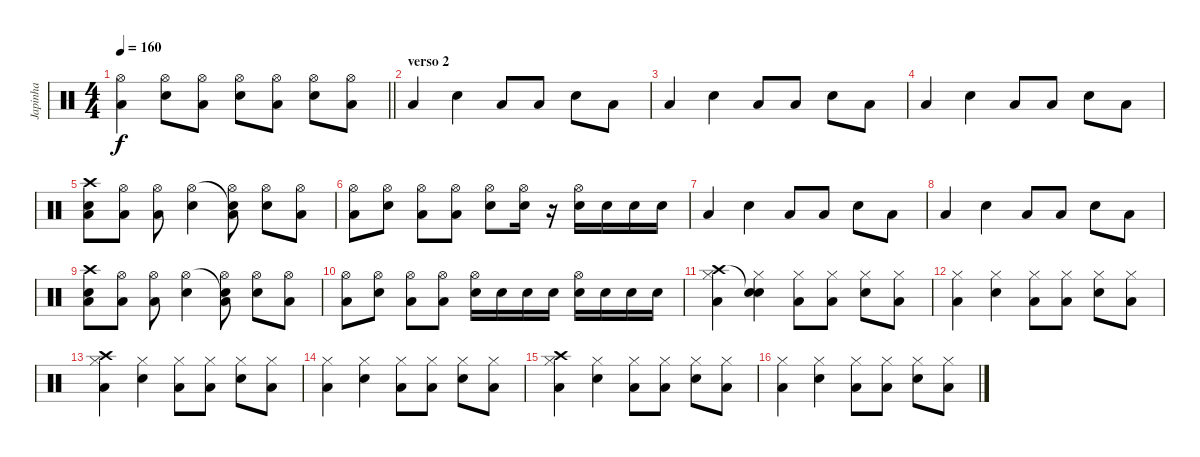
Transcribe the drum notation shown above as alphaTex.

\track ("Japinha" "Japinha") {instrument percussion}
\staff {score}
\articulation defaults
\ts (4 4)
\tempo 160
\clef neutral
\barLineRight lightlight
\ks c
("Hi-Hat (open)" "Low Tom (hit)").4{dy f} ("Hi-Hat (open)" "Snare (hit) 2").8 ("Hi-Hat (open)" "Low Tom (hit)").8 ("Hi-Hat (open)" "Snare (hit) 2").8 ("Hi-Hat (open)" "Low Tom (hit)").8 ("Hi-Hat (open)" "Snare (hit) 2").8 ("Hi-Hat (open)" "Low Tom (hit)").8 |
\section ("" "verso 2")
"Low Tom (hit)".4 "Snare (hit) 2".4 "Low Tom (hit)".8 "Low Tom (hit)".8 "Snare (hit) 2".8 "Low Tom (hit)".8 |
"Low Tom (hit)".4 "Snare (hit) 2".4 "Low Tom (hit)".8 "Low Tom (hit)".8 "Snare (hit) 2".8 "Low Tom (hit)".8 |
"Low Tom (hit)".4 "Snare (hit) 2".4 "Low Tom (hit)".8 "Low Tom (hit)".8 "Snare (hit) 2".8 "Low Tom (hit)".8 |
("Crash high (hit)" "Low Tom (hit)" "Snare (hit) 2").8 ("Hi-Hat (open)" "Low Tom (hit)").8 ("Hi-Hat (open)" "Low Tom (hit)").8 ("Hi-Hat (open)" "Snare (hit) 2").4 ("Snare (hit)"{t} "Hi-Hat (open)" "Low Tom (hit)").8 ("Hi-Hat (open)" "Snare (hit) 2").8 ("Hi-Hat (open)" "Low Tom (hit)").8 |
("Hi-Hat (open)" "Low Tom (hit)").8 ("Hi-Hat (open)" "Snare (hit) 2").8 ("Hi-Hat (open)" "Low Tom (hit)").8 ("Hi-Hat (open)" "Low Tom (hit)").8 ("Hi-Hat (open)" "Snare (hit) 2").8 ("Hi-Hat (open)" "Snare (hit) 2").16 r.16 ("Hi-Hat (open)" "Snare (hit) 2").16 "Snare (hit) 2".16 "Snare (hit) 2".16 "Snare (hit) 2".16 |
"Low Tom (hit)".4 "Snare (hit) 2".4 "Low Tom (hit)".8 "Low Tom (hit)".8 "Snare (hit) 2".8 "Low Tom (hit)".8 |
"Low Tom (hit)".4 "Snare (hit) 2".4 "Low Tom (hit)".8 "Low Tom (hit)".8 "Snare (hit) 2".8 "Low Tom (hit)".8 |
("Crash high (hit)" "Low Tom (hit)" "Snare (hit) 2").8 ("Hi-Hat (open)" "Low Tom (hit)").8 ("Hi-Hat (open)" "Low Tom (hit)").8 ("Hi-Hat (open)" "Snare (hit) 2").4 ("Snare (hit)"{t} "Hi-Hat (open)" "Low Tom (hit)").8 ("Hi-Hat (open)" "Snare (hit) 2").8 ("Hi-Hat (open)" "Low Tom (hit)").8 |
("Hi-Hat (open)" "Low Tom (hit)").8 ("Hi-Hat (open)" "Snare (hit) 2").8 ("Hi-Hat (open)" "Low Tom (hit)").8 ("Hi-Hat (open)" "Low Tom (hit)").8 ("Hi-Hat (open)" "Snare (hit) 2").16 "Snare (hit) 2".16 "Snare (hit) 2".16 "Snare (hit) 2".16 ("Hi-Hat (open)" "Snare (hit) 2").16 "Snare (hit) 2".16 "Snare (hit) 2".16 "Snare (hit) 2".16 |
("Crash high (hit)" "Hi-Hat (closed)" "Low Tom (hit)").4 ("Snare (hit)"{t} "Hi-Hat (closed)" "Snare (hit) 2").4 ("Hi-Hat (closed)" "Low Tom (hit)").8 ("Hi-Hat (closed)" "Low Tom (hit)").8 ("Hi-Hat (closed)" "Snare (hit) 2").8 ("Hi-Hat (closed)" "Low Tom (hit)").8 |
("Hi-Hat (closed)" "Low Tom (hit)").4 ("Hi-Hat (closed)" "Snare (hit) 2").4 ("Hi-Hat (closed)" "Low Tom (hit)").8 ("Hi-Hat (closed)" "Low Tom (hit)").8 ("Hi-Hat (closed)" "Snare (hit) 2").8 ("Hi-Hat (closed)" "Low Tom (hit)").8 |
("Crash high (hit)" "Hi-Hat (closed)" "Low Tom (hit)").4 ("Hi-Hat (closed)" "Snare (hit) 2").4 ("Hi-Hat (closed)" "Low Tom (hit)").8 ("Hi-Hat (closed)" "Low Tom (hit)").8 ("Hi-Hat (closed)" "Snare (hit) 2").8 ("Hi-Hat (closed)" "Low Tom (hit)").8 |
("Hi-Hat (closed)" "Low Tom (hit)").4 ("Hi-Hat (closed)" "Snare (hit) 2").4 ("Hi-Hat (closed)" "Low Tom (hit)").8 ("Hi-Hat (closed)" "Low Tom (hit)").8 ("Hi-Hat (closed)" "Snare (hit) 2").8 ("Hi-Hat (closed)" "Low Tom (hit)").8 |
("Crash high (hit)" "Hi-Hat (closed)" "Low Tom (hit)").4 ("Hi-Hat (closed)" "Snare (hit) 2").4 ("Hi-Hat (closed)" "Low Tom (hit)").8 ("Hi-Hat (closed)" "Low Tom (hit)").8 ("Hi-Hat (closed)" "Snare (hit) 2").8 ("Hi-Hat (closed)" "Low Tom (hit)").8 |
("Hi-Hat (closed)" "Low Tom (hit)").4 ("Hi-Hat (closed)" "Snare (hit) 2").4 ("Hi-Hat (closed)" "Low Tom (hit)").8 ("Hi-Hat (closed)" "Low Tom (hit)").8 ("Hi-Hat (closed)" "Snare (hit) 2").8 ("Hi-Hat (closed)" "Low Tom (hit)").8
